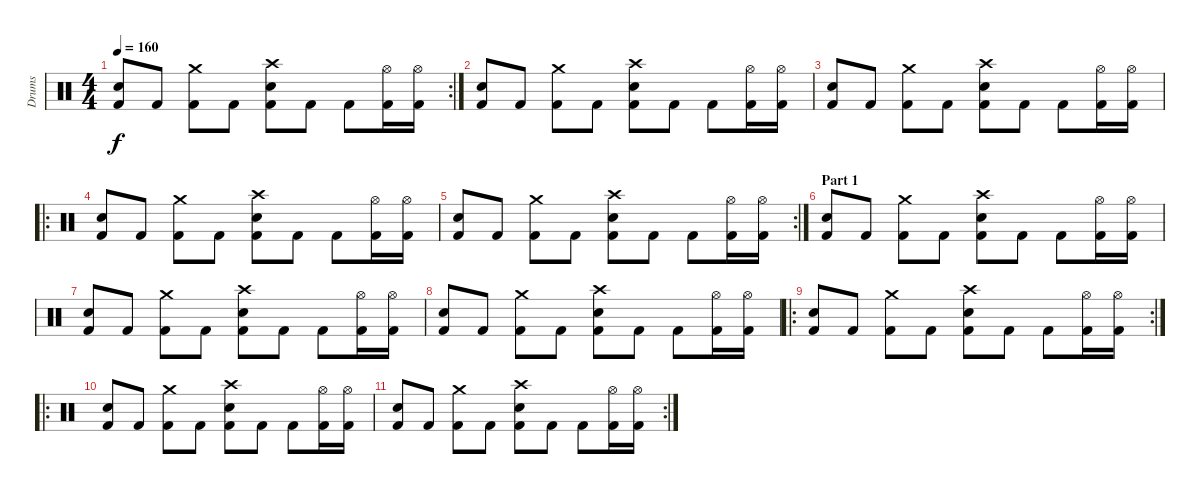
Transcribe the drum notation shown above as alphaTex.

\track ("Drums" "Drums") {instrument percussion}
\staff {score}
\articulation defaults
\rc 2
\ts (4 4)
\tempo 160
\clef neutral
\ks c
("Kick (hit) 2" "Electric Snare (hit)").8{dy f} "Kick (hit) 2".8 ("Kick (hit) 2" "Crash medium (hit)").8 "Kick (hit) 2".8 ("Kick (hit) 2" "Crash high (hit)" "Electric Snare (hit)").8 "Kick (hit) 2".8 "Kick (hit) 2".8 ("Kick (hit) 2" "Hi-Hat (open)").16 ("Kick (hit) 2" "Hi-Hat (open)").16 |
("Kick (hit) 2" "Electric Snare (hit)").8 "Kick (hit) 2".8 ("Kick (hit) 2" "Crash medium (hit)").8 "Kick (hit) 2".8 ("Kick (hit) 2" "Crash high (hit)" "Electric Snare (hit)").8 "Kick (hit) 2".8 "Kick (hit) 2".8 ("Kick (hit) 2" "Hi-Hat (open)").16 ("Kick (hit) 2" "Hi-Hat (open)").16 |
("Kick (hit) 2" "Electric Snare (hit)").8 "Kick (hit) 2".8 ("Kick (hit) 2" "Crash medium (hit)").8 "Kick (hit) 2".8 ("Kick (hit) 2" "Crash high (hit)" "Electric Snare (hit)").8 "Kick (hit) 2".8 "Kick (hit) 2".8 ("Kick (hit) 2" "Hi-Hat (open)").16 ("Kick (hit) 2" "Hi-Hat (open)").16 |
\ro
("Kick (hit) 2" "Electric Snare (hit)").8 "Kick (hit) 2".8 ("Kick (hit) 2" "Crash medium (hit)").8 "Kick (hit) 2".8 ("Kick (hit) 2" "Crash high (hit)" "Electric Snare (hit)").8 "Kick (hit) 2".8 "Kick (hit) 2".8 ("Kick (hit) 2" "Hi-Hat (open)").16 ("Kick (hit) 2" "Hi-Hat (open)").16 |
\rc 2
("Kick (hit) 2" "Electric Snare (hit)").8 "Kick (hit) 2".8 ("Kick (hit) 2" "Crash medium (hit)").8 "Kick (hit) 2".8 ("Kick (hit) 2" "Crash high (hit)" "Electric Snare (hit)").8 "Kick (hit) 2".8 "Kick (hit) 2".8 ("Kick (hit) 2" "Hi-Hat (open)").16 ("Kick (hit) 2" "Hi-Hat (open)").16 |
\section ("" "Part 1")
("Kick (hit) 2" "Electric Snare (hit)").8 "Kick (hit) 2".8 ("Kick (hit) 2" "Crash medium (hit)").8 "Kick (hit) 2".8 ("Kick (hit) 2" "Crash high (hit)" "Electric Snare (hit)").8 "Kick (hit) 2".8 "Kick (hit) 2".8 ("Kick (hit) 2" "Hi-Hat (open)").16 ("Kick (hit) 2" "Hi-Hat (open)").16 |
("Kick (hit) 2" "Electric Snare (hit)").8 "Kick (hit) 2".8 ("Kick (hit) 2" "Crash medium (hit)").8 "Kick (hit) 2".8 ("Kick (hit) 2" "Crash high (hit)" "Electric Snare (hit)").8 "Kick (hit) 2".8 "Kick (hit) 2".8 ("Kick (hit) 2" "Hi-Hat (open)").16 ("Kick (hit) 2" "Hi-Hat (open)").16 |
("Kick (hit) 2" "Electric Snare (hit)").8 "Kick (hit) 2".8 ("Kick (hit) 2" "Crash medium (hit)").8 "Kick (hit) 2".8 ("Kick (hit) 2" "Crash high (hit)" "Electric Snare (hit)").8 "Kick (hit) 2".8 "Kick (hit) 2".8 ("Kick (hit) 2" "Hi-Hat (open)").16 ("Kick (hit) 2" "Hi-Hat (open)").16 |
\ro
\rc 2
("Kick (hit) 2" "Electric Snare (hit)").8 "Kick (hit) 2".8 ("Kick (hit) 2" "Crash medium (hit)").8 "Kick (hit) 2".8 ("Kick (hit) 2" "Crash high (hit)" "Electric Snare (hit)").8 "Kick (hit) 2".8 "Kick (hit) 2".8 ("Kick (hit) 2" "Hi-Hat (open)").16 ("Kick (hit) 2" "Hi-Hat (open)").16 |
\ro
("Kick (hit) 2" "Electric Snare (hit)").8 "Kick (hit) 2".8 ("Kick (hit) 2" "Crash medium (hit)").8 "Kick (hit) 2".8 ("Kick (hit) 2" "Crash high (hit)" "Electric Snare (hit)").8 "Kick (hit) 2".8 "Kick (hit) 2".8 ("Kick (hit) 2" "Hi-Hat (open)").16 ("Kick (hit) 2" "Hi-Hat (open)").16 |
\rc 2
("Kick (hit) 2" "Electric Snare (hit)").8 "Kick (hit) 2".8 ("Kick (hit) 2" "Crash medium (hit)").8 "Kick (hit) 2".8 ("Kick (hit) 2" "Crash high (hit)" "Electric Snare (hit)").8 "Kick (hit) 2".8 "Kick (hit) 2".8 ("Kick (hit) 2" "Hi-Hat (open)").16 ("Kick (hit) 2" "Hi-Hat (open)").16
